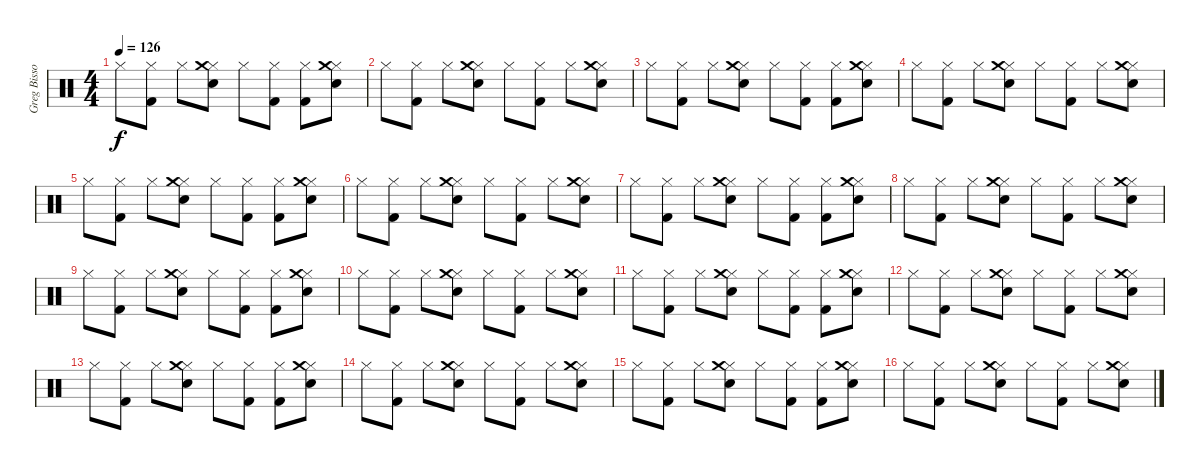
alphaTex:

\track ("Greg Bissonette - drums" "Greg Bisso") {instrument percussion}
\staff {score}
\articulation defaults
\ts (4 4)
\tempo 126
\clef neutral
\ks c "Hi-Hat (closed)".8{dy f}
("Hi-Hat (closed)" "Kick (hit) 2").8 "Hi-Hat (closed)".8 ("Hi-Hat (closed)" "Snare (hit) 2" "Crash medium (hit)").8 "Hi-Hat (closed)".8 ("Hi-Hat (closed)" "Kick (hit) 2").8 ("Hi-Hat (closed)" "Kick (hit) 2").8 ("Hi-Hat (closed)" "Snare (hit) 2" "Crash medium (hit)").8 |
"Hi-Hat (closed)".8 ("Hi-Hat (closed)" "Kick (hit) 2").8 "Hi-Hat (closed)".8 ("Hi-Hat (closed)" "Snare (hit) 2" "Crash medium (hit)").8 "Hi-Hat (closed)".8 ("Hi-Hat (closed)" "Kick (hit) 2").8 "Hi-Hat (closed)".8 ("Hi-Hat (closed)" "Snare (hit) 2" "Crash medium (hit)").8 |
"Hi-Hat (closed)".8 ("Hi-Hat (closed)" "Kick (hit) 2").8 "Hi-Hat (closed)".8 ("Hi-Hat (closed)" "Snare (hit) 2" "Crash medium (hit)").8 "Hi-Hat (closed)".8 ("Hi-Hat (closed)" "Kick (hit) 2").8 ("Hi-Hat (closed)" "Kick (hit) 2").8 ("Hi-Hat (closed)" "Snare (hit) 2" "Crash medium (hit)").8 |
"Hi-Hat (closed)".8 ("Hi-Hat (closed)" "Kick (hit) 2").8 "Hi-Hat (closed)".8 ("Hi-Hat (closed)" "Snare (hit) 2" "Crash medium (hit)").8 "Hi-Hat (closed)".8 ("Hi-Hat (closed)" "Kick (hit) 2").8 "Hi-Hat (closed)".8 ("Hi-Hat (closed)" "Snare (hit) 2" "Crash medium (hit)").8 |
"Hi-Hat (closed)".8 ("Hi-Hat (closed)" "Kick (hit) 2").8 "Hi-Hat (closed)".8 ("Hi-Hat (closed)" "Snare (hit) 2" "Crash medium (hit)").8 "Hi-Hat (closed)".8 ("Hi-Hat (closed)" "Kick (hit) 2").8 ("Hi-Hat (closed)" "Kick (hit) 2").8 ("Hi-Hat (closed)" "Snare (hit) 2" "Crash medium (hit)").8 |
"Hi-Hat (closed)".8 ("Hi-Hat (closed)" "Kick (hit) 2").8 "Hi-Hat (closed)".8 ("Hi-Hat (closed)" "Snare (hit) 2" "Crash medium (hit)").8 "Hi-Hat (closed)".8 ("Hi-Hat (closed)" "Kick (hit) 2").8 "Hi-Hat (closed)".8 ("Hi-Hat (closed)" "Snare (hit) 2" "Crash medium (hit)").8 |
"Hi-Hat (closed)".8 ("Hi-Hat (closed)" "Kick (hit) 2").8 "Hi-Hat (closed)".8 ("Hi-Hat (closed)" "Snare (hit) 2" "Crash medium (hit)").8 "Hi-Hat (closed)".8 ("Hi-Hat (closed)" "Kick (hit) 2").8 ("Hi-Hat (closed)" "Kick (hit) 2").8 ("Hi-Hat (closed)" "Snare (hit) 2" "Crash medium (hit)").8 |
"Hi-Hat (closed)".8 ("Hi-Hat (closed)" "Kick (hit) 2").8 "Hi-Hat (closed)".8 ("Hi-Hat (closed)" "Snare (hit) 2" "Crash medium (hit)").8 "Hi-Hat (closed)".8 ("Hi-Hat (closed)" "Kick (hit) 2").8 "Hi-Hat (closed)".8 ("Hi-Hat (closed)" "Snare (hit) 2" "Crash medium (hit)").8 |
"Hi-Hat (closed)".8 ("Hi-Hat (closed)" "Kick (hit) 2").8 "Hi-Hat (closed)".8 ("Hi-Hat (closed)" "Snare (hit) 2" "Crash medium (hit)").8 "Hi-Hat (closed)".8 ("Hi-Hat (closed)" "Kick (hit) 2").8 ("Hi-Hat (closed)" "Kick (hit) 2").8 ("Hi-Hat (closed)" "Snare (hit) 2" "Crash medium (hit)").8 |
"Hi-Hat (closed)".8 ("Hi-Hat (closed)" "Kick (hit) 2").8 "Hi-Hat (closed)".8 ("Hi-Hat (closed)" "Snare (hit) 2" "Crash medium (hit)").8 "Hi-Hat (closed)".8 ("Hi-Hat (closed)" "Kick (hit) 2").8 "Hi-Hat (closed)".8 ("Hi-Hat (closed)" "Snare (hit) 2" "Crash medium (hit)").8 |
"Hi-Hat (closed)".8 ("Hi-Hat (closed)" "Kick (hit) 2").8 "Hi-Hat (closed)".8 ("Hi-Hat (closed)" "Snare (hit) 2" "Crash medium (hit)").8 "Hi-Hat (closed)".8 ("Hi-Hat (closed)" "Kick (hit) 2").8 ("Hi-Hat (closed)" "Kick (hit) 2").8 ("Hi-Hat (closed)" "Snare (hit) 2" "Crash medium (hit)").8 |
"Hi-Hat (closed)".8 ("Hi-Hat (closed)" "Kick (hit) 2").8 "Hi-Hat (closed)".8 ("Hi-Hat (closed)" "Snare (hit) 2" "Crash medium (hit)").8 "Hi-Hat (closed)".8 ("Hi-Hat (closed)" "Kick (hit) 2").8 "Hi-Hat (closed)".8 ("Hi-Hat (closed)" "Snare (hit) 2" "Crash medium (hit)").8 |
"Hi-Hat (closed)".8 ("Hi-Hat (closed)" "Kick (hit) 2").8 "Hi-Hat (closed)".8 ("Hi-Hat (closed)" "Snare (hit) 2" "Crash medium (hit)").8 "Hi-Hat (closed)".8 ("Hi-Hat (closed)" "Kick (hit) 2").8 ("Hi-Hat (closed)" "Kick (hit) 2").8 ("Hi-Hat (closed)" "Snare (hit) 2" "Crash medium (hit)").8 |
"Hi-Hat (closed)".8 ("Hi-Hat (closed)" "Kick (hit) 2").8 "Hi-Hat (closed)".8 ("Hi-Hat (closed)" "Snare (hit) 2" "Crash medium (hit)").8 "Hi-Hat (closed)".8 ("Hi-Hat (closed)" "Kick (hit) 2").8 "Hi-Hat (closed)".8 ("Hi-Hat (closed)" "Snare (hit) 2" "Crash medium (hit)").8 |
"Hi-Hat (closed)".8 ("Hi-Hat (closed)" "Kick (hit) 2").8 "Hi-Hat (closed)".8 ("Hi-Hat (closed)" "Snare (hit) 2" "Crash medium (hit)").8 "Hi-Hat (closed)".8 ("Hi-Hat (closed)" "Kick (hit) 2").8 ("Hi-Hat (closed)" "Kick (hit) 2").8 ("Hi-Hat (closed)" "Snare (hit) 2" "Crash medium (hit)").8 |
"Hi-Hat (closed)".8 ("Hi-Hat (closed)" "Kick (hit) 2").8 "Hi-Hat (closed)".8 ("Hi-Hat (closed)" "Snare (hit) 2" "Crash medium (hit)").8 "Hi-Hat (closed)".8 ("Hi-Hat (closed)" "Kick (hit) 2").8 "Hi-Hat (closed)".8 ("Hi-Hat (closed)" "Snare (hit) 2" "Crash medium (hit)").8
